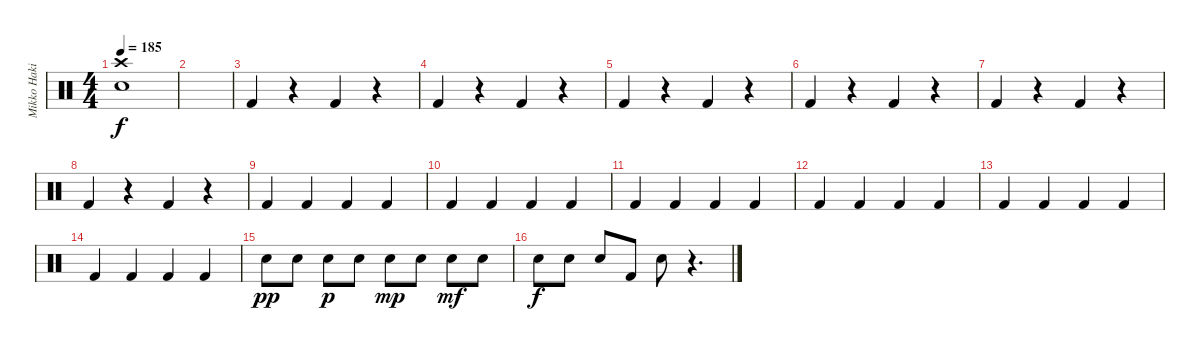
\track ("Mikko Hakila" "Mikko Haki") {instrument percussion}
\staff {score}
\articulation defaults
\ts (4 4)
\tempo 185
\clef neutral
\ks c
("Crash high (hit)" "Snare (hit) 2").1{dy f} |
|
"Kick (hit) 2".4 r.4 "Kick (hit) 2".4 r.4 |
"Kick (hit) 2".4 r.4 "Kick (hit) 2".4 r.4 |
"Kick (hit) 2".4 r.4 "Kick (hit) 2".4 r.4 |
"Kick (hit) 2".4 r.4 "Kick (hit) 2".4 r.4 |
"Kick (hit) 2".4 r.4 "Kick (hit) 2".4 r.4 |
"Kick (hit) 2".4 r.4 "Kick (hit) 2".4 r.4 |
"Kick (hit) 2".4 "Kick (hit) 2".4 "Kick (hit) 2".4 "Kick (hit) 2".4 |
"Kick (hit) 2".4 "Kick (hit) 2".4 "Kick (hit) 2".4 "Kick (hit) 2".4 |
"Kick (hit) 2".4 "Kick (hit) 2".4 "Kick (hit) 2".4 "Kick (hit) 2".4 |
"Kick (hit) 2".4 "Kick (hit) 2".4 "Kick (hit) 2".4 "Kick (hit) 2".4 |
"Kick (hit) 2".4 "Kick (hit) 2".4 "Kick (hit) 2".4 "Kick (hit) 2".4 |
"Kick (hit) 2".4 "Kick (hit) 2".4 "Kick (hit) 2".4 "Kick (hit) 2".4 |
"Snare (hit) 2".8{dy pp} "Snare (hit) 2".8 "Snare (hit) 2".8{dy p} "Snare (hit) 2".8 "Snare (hit) 2".8{dy mp} "Snare (hit) 2".8 "Snare (hit) 2".8{dy mf} "Snare (hit) 2".8 |
"Snare (hit) 2".8{dy f} "Snare (hit) 2".8 "Snare (hit) 2".8 "Kick (hit) 2".8 "Snare (hit) 2".8 r.4{d}
